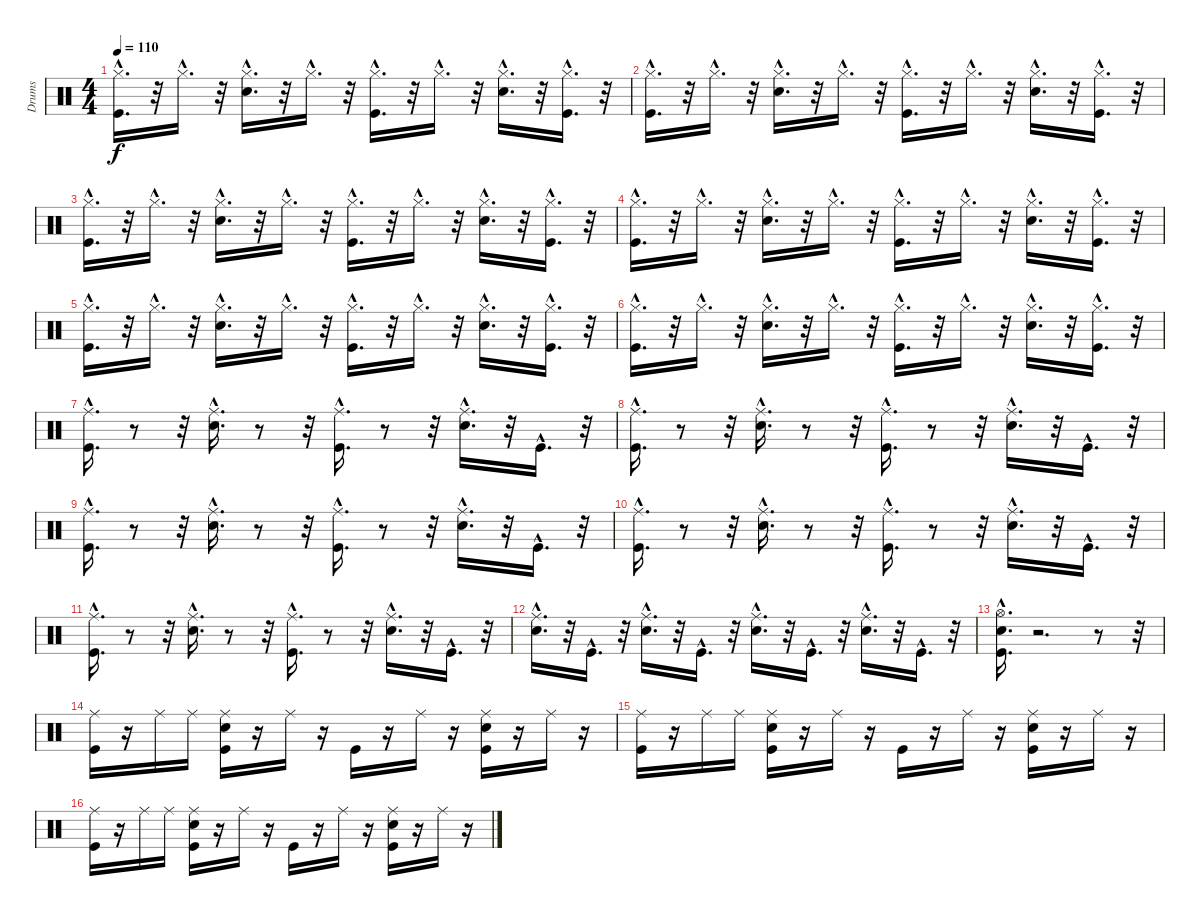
\track ("Drums" "Drums") {instrument percussion}
\staff {score}
\articulation defaults
\ts (4 4)
\tempo 110
\clef neutral
\ks c
("Hi-Hat (closed)"{hac} "Kick (hit)"{hac}).16{d dy f} r.32 "Hi-Hat (closed)"{hac}.16{d} r.32 ("Snare (hit) 2"{hac} "Hi-Hat (closed)"{hac}).16{d} r.32 "Hi-Hat (closed)"{hac}.16{d} r.32 ("Hi-Hat (closed)"{hac} "Kick (hit)"{hac}).16{d} r.32 "Hi-Hat (closed)"{hac}.16{d} r.32 ("Snare (hit) 2"{hac} "Hi-Hat (closed)"{hac}).16{d} r.32 ("Kick (hit)"{hac} "Hi-Hat (closed)"{hac}).16{d} r.32 |
("Hi-Hat (closed)"{hac} "Kick (hit)"{hac}).16{d} r.32 "Hi-Hat (closed)"{hac}.16{d} r.32 ("Snare (hit) 2"{hac} "Hi-Hat (closed)"{hac}).16{d} r.32 "Hi-Hat (closed)"{hac}.16{d} r.32 ("Hi-Hat (closed)"{hac} "Kick (hit)"{hac}).16{d} r.32 "Hi-Hat (closed)"{hac}.16{d} r.32 ("Snare (hit) 2"{hac} "Hi-Hat (closed)"{hac}).16{d} r.32 ("Kick (hit)"{hac} "Hi-Hat (closed)"{hac}).16{d} r.32 |
("Hi-Hat (closed)"{hac} "Kick (hit)"{hac}).16{d} r.32 "Hi-Hat (closed)"{hac}.16{d} r.32 ("Snare (hit) 2"{hac} "Hi-Hat (closed)"{hac}).16{d} r.32 "Hi-Hat (closed)"{hac}.16{d} r.32 ("Hi-Hat (closed)"{hac} "Kick (hit)"{hac}).16{d} r.32 "Hi-Hat (closed)"{hac}.16{d} r.32 ("Snare (hit) 2"{hac} "Hi-Hat (closed)"{hac}).16{d} r.32 ("Kick (hit)"{hac} "Hi-Hat (closed)"{hac}).16{d} r.32 |
("Hi-Hat (closed)"{hac} "Kick (hit)"{hac}).16{d} r.32 "Hi-Hat (closed)"{hac}.16{d} r.32 ("Snare (hit) 2"{hac} "Hi-Hat (closed)"{hac}).16{d} r.32 "Hi-Hat (closed)"{hac}.16{d} r.32 ("Hi-Hat (closed)"{hac} "Kick (hit)"{hac}).16{d} r.32 "Hi-Hat (closed)"{hac}.16{d} r.32 ("Snare (hit) 2"{hac} "Hi-Hat (closed)"{hac}).16{d} r.32 ("Kick (hit)"{hac} "Hi-Hat (closed)"{hac}).16{d} r.32 |
("Hi-Hat (closed)"{hac} "Kick (hit)"{hac}).16{d} r.32 "Hi-Hat (closed)"{hac}.16{d} r.32 ("Snare (hit) 2"{hac} "Hi-Hat (closed)"{hac}).16{d} r.32 "Hi-Hat (closed)"{hac}.16{d} r.32 ("Hi-Hat (closed)"{hac} "Kick (hit)"{hac}).16{d} r.32 "Hi-Hat (closed)"{hac}.16{d} r.32 ("Snare (hit) 2"{hac} "Hi-Hat (closed)"{hac}).16{d} r.32 ("Kick (hit)"{hac} "Hi-Hat (closed)"{hac}).16{d} r.32 |
("Hi-Hat (closed)"{hac} "Kick (hit)"{hac}).16{d} r.32 "Hi-Hat (closed)"{hac}.16{d} r.32 ("Snare (hit) 2"{hac} "Hi-Hat (closed)"{hac}).16{d} r.32 "Hi-Hat (closed)"{hac}.16{d} r.32 ("Hi-Hat (closed)"{hac} "Kick (hit)"{hac}).16{d} r.32 "Hi-Hat (closed)"{hac}.16{d} r.32 ("Snare (hit) 2"{hac} "Hi-Hat (closed)"{hac}).16{d} r.32 ("Kick (hit)"{hac} "Hi-Hat (closed)"{hac}).16{d} r.32 |
("Ride (middle)"{hac} "Kick (hit)"{hac}).16{d} r.8 r.32 ("Ride (middle)"{hac} "Snare (hit) 2"{hac}).16{d} r.8 r.32 ("Ride (middle)"{hac} "Kick (hit)"{hac}).16{d} r.8 r.32 ("Ride (middle)"{hac} "Snare (hit) 2"{hac}).16{d} r.32 "Kick (hit)"{hac}.16{d} r.32 |
("Ride (middle)"{hac} "Kick (hit)"{hac}).16{d} r.8 r.32 ("Ride (middle)"{hac} "Snare (hit) 2"{hac}).16{d} r.8 r.32 ("Ride (middle)"{hac} "Kick (hit)"{hac}).16{d} r.8 r.32 ("Ride (middle)"{hac} "Snare (hit) 2"{hac}).16{d} r.32 "Kick (hit)"{hac}.16{d} r.32 |
("Ride (middle)"{hac} "Kick (hit)"{hac}).16{d} r.8 r.32 ("Ride (middle)"{hac} "Snare (hit) 2"{hac}).16{d} r.8 r.32 ("Ride (middle)"{hac} "Kick (hit)"{hac}).16{d} r.8 r.32 ("Ride (middle)"{hac} "Snare (hit) 2"{hac}).16{d} r.32 "Kick (hit)"{hac}.16{d} r.32 |
("Ride (middle)"{hac} "Kick (hit)"{hac}).16{d} r.8 r.32 ("Ride (middle)"{hac} "Snare (hit) 2"{hac}).16{d} r.8 r.32 ("Ride (middle)"{hac} "Kick (hit)"{hac}).16{d} r.8 r.32 ("Ride (middle)"{hac} "Snare (hit) 2"{hac}).16{d} r.32 "Kick (hit)"{hac}.16{d} r.32 |
("Ride (middle)"{hac} "Kick (hit)"{hac}).16{d} r.8 r.32 ("Ride (middle)"{hac} "Snare (hit) 2"{hac}).16{d} r.8 r.32 ("Ride (middle)"{hac} "Kick (hit)"{hac}).16{d} r.8 r.32 ("Ride (middle)"{hac} "Snare (hit) 2"{hac}).16{d} r.32 "Kick (hit)"{hac}.16{d} r.32 |
("Snare (hit) 2"{hac} "Ride (middle)"{hac}).16{d} r.32 "Kick (hit)"{hac}.16{d} r.32 ("Ride (middle)"{hac} "Snare (hit) 2"{hac}).16{d} r.32 "Kick (hit)"{hac}.16{d} r.32 ("Snare (hit) 2"{hac} "Ride (middle)"{hac}).16{d} r.32 "Kick (hit)"{hac}.16{d} r.32 ("Ride (middle)"{hac} "Snare (hit) 2"{hac}).16{d} r.32 "Kick (hit)"{hac}.16{d} r.32 |
("Hi-Hat (open)"{hac} "Snare (hit) 2"{hac} "Kick (hit)"{hac}).16{d} r.2{d} r.8 r.32 |
("Kick (hit)" "Ride (middle)").16 r.16 "Ride (middle)".16 "Ride (middle)".16 ("Snare (hit) 2" "Ride (middle)" "Kick (hit)").16 r.16 "Ride (middle)".16 r.16 "Kick (hit)".16 r.16 "Ride (middle)".16 r.16 ("Snare (hit) 2" "Ride (middle)" "Kick (hit)").16 r.16 "Ride (middle)".16 r.16 |
("Kick (hit)" "Ride (middle)").16 r.16 "Ride (middle)".16 "Ride (middle)".16 ("Snare (hit) 2" "Ride (middle)" "Kick (hit)").16 r.16 "Ride (middle)".16 r.16 "Kick (hit)".16 r.16 "Ride (middle)".16 r.16 ("Snare (hit) 2" "Ride (middle)" "Kick (hit)").16 r.16 "Ride (middle)".16 r.16 |
("Kick (hit)" "Ride (middle)").16 r.16 "Ride (middle)".16 "Ride (middle)".16 ("Snare (hit) 2" "Ride (middle)" "Kick (hit)").16 r.16 "Ride (middle)".16 r.16 "Kick (hit)".16 r.16 "Ride (middle)".16 r.16 ("Snare (hit) 2" "Ride (middle)" "Kick (hit)").16 r.16 "Ride (middle)".16 r.16
